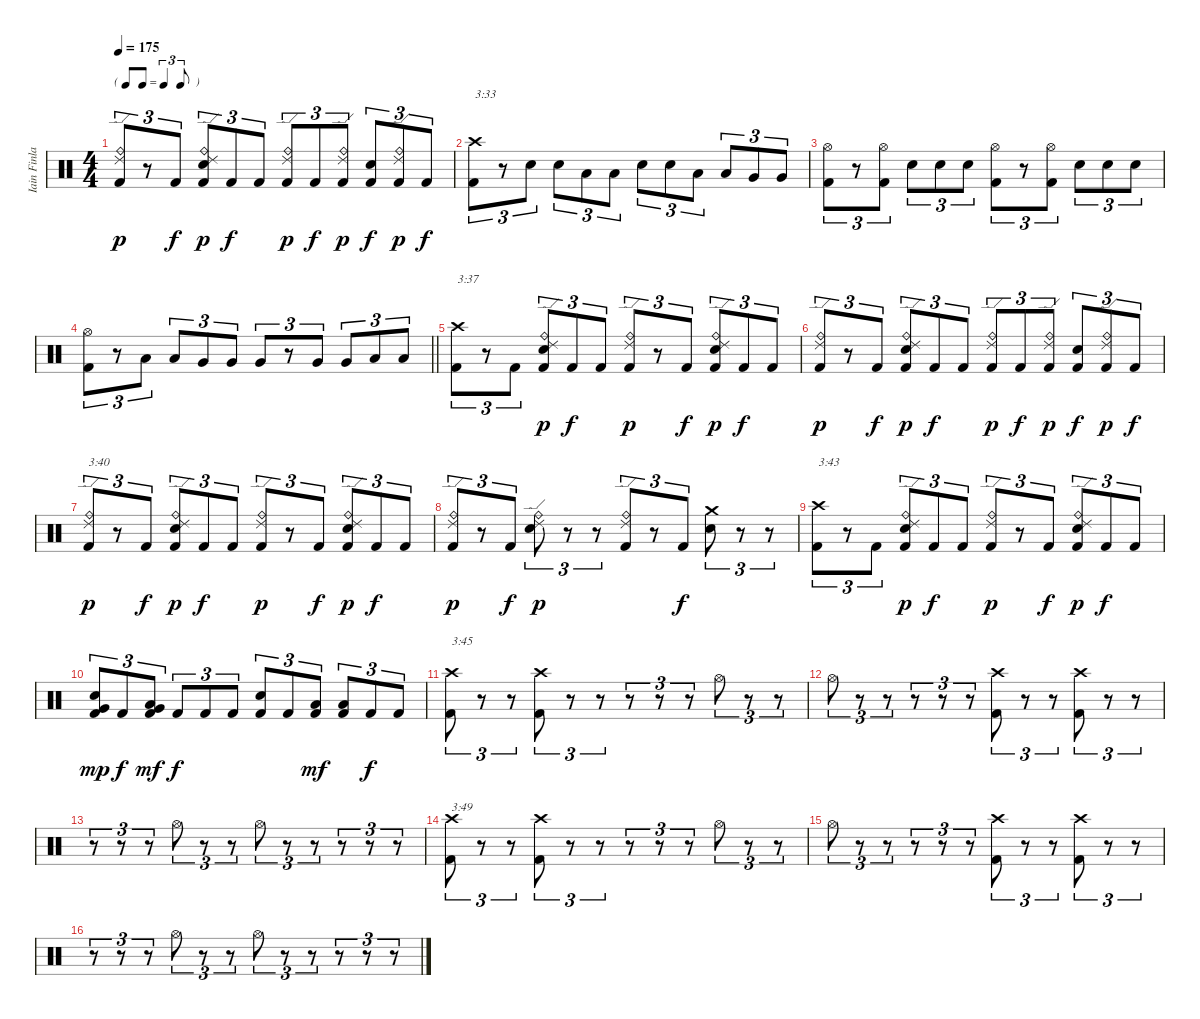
\track ("Iain Finlay" "Iain Finla") {instrument percussion}
\staff {score}
\articulation defaults
\ts (4 4)
\tf triplet8th
\tempo 175
\clef neutral
\ks c
("Ride (edge) 2" "Ride (bell)" "Kick (hit) 2").8{tu (3 2) dy p} r.8{tu (3 2)} "Kick (hit) 2".8{tu (3 2) dy f} ("Ride (edge) 2" "Ride (bell)" "Electric Snare (hit)" "Kick (hit) 2").8{tu (3 2) dy p} "Kick (hit) 2".8{tu (3 2) dy f} "Kick (hit) 2".8{tu (3 2)} ("Ride (edge) 2" "Ride (bell)" "Kick (hit) 2").8{tu (3 2) dy p} "Kick (hit) 2".8{tu (3 2) dy f} ("Ride (edge) 2" "Ride (bell)" "Kick (hit) 2").8{tu (3 2) dy p} ("Electric Snare (hit)" "Kick (hit) 2").8{tu (3 2) dy f} ("Ride (edge) 2" "Ride (bell)" "Kick (hit) 2").8{tu (3 2) dy p} "Kick (hit) 2".8{tu (3 2) dy f} |
("Crash high (hit)" "Kick (hit) 2").8{tu (3 2) txt "3:33"} r.8{tu (3 2)} "Electric Snare (hit)".8{tu (3 2)} "Electric Snare (hit)".8{tu (3 2)} "Low Tom (hit)".8{tu (3 2)} "Low Tom (hit)".8{tu (3 2)} "Electric Snare (hit)".8{tu (3 2)} "Electric Snare (hit)".8{tu (3 2)} "Low Tom (hit)".8{tu (3 2)} "Low Tom (hit)".8{tu (3 2)} "Very Low Tom (hit)".8{tu (3 2)} "Very Low Tom (hit)".8{tu (3 2)} |
("Hi-Hat (open)" "Kick (hit) 2").8{tu (3 2)} r.8{tu (3 2)} ("Hi-Hat (open)" "Kick (hit) 2").8{tu (3 2)} "Electric Snare (hit)".8{tu (3 2)} "Electric Snare (hit)".8{tu (3 2)} "Electric Snare (hit)".8{tu (3 2)} ("Hi-Hat (open)" "Kick (hit) 2").8{tu (3 2)} r.8{tu (3 2)} ("Hi-Hat (open)" "Kick (hit) 2").8{tu (3 2)} "Electric Snare (hit)".8{tu (3 2)} "Electric Snare (hit)".8{tu (3 2)} "Electric Snare (hit)".8{tu (3 2)} |
\barLineRight lightlight
("Hi-Hat (open)" "Kick (hit) 2").8{tu (3 2)} r.8{tu (3 2)} "Low Tom (hit)".8{tu (3 2)} "Low Tom (hit)".8{tu (3 2)} "Very Low Tom (hit)".8{tu (3 2)} "Very Low Tom (hit)".8{tu (3 2)} "Very Low Tom (hit)".8{tu (3 2)} r.8{tu (3 2)} "Very Low Tom (hit)".8{tu (3 2)} "Very Low Tom (hit)".8{tu (3 2)} "Low Floor Tom (hit)".8{tu (3 2)} "Low Floor Tom (hit)".8{tu (3 2)} |
\section ("" "")
("Crash high (hit)" "Kick (hit) 2").8{tu (3 2) txt "3:37"} r.8{tu (3 2)} "Kick (hit) 2".8{tu (3 2)} ("Ride (edge) 2" "Ride (bell)" "Electric Snare (hit)" "Kick (hit) 2").8{tu (3 2) dy p} "Kick (hit) 2".8{tu (3 2) dy f} "Kick (hit) 2".8{tu (3 2)} ("Ride (edge) 2" "Ride (bell)" "Kick (hit) 2").8{tu (3 2) dy p} r.8{tu (3 2)} "Kick (hit) 2".8{tu (3 2) dy f} ("Ride (edge) 2" "Ride (bell)" "Electric Snare (hit)" "Kick (hit) 2").8{tu (3 2) dy p} "Kick (hit) 2".8{tu (3 2) dy f} "Kick (hit) 2".8{tu (3 2)} |
("Ride (edge) 2" "Ride (bell)" "Kick (hit) 2").8{tu (3 2) dy p} r.8{tu (3 2)} "Kick (hit) 2".8{tu (3 2) dy f} ("Ride (edge) 2" "Ride (bell)" "Electric Snare (hit)" "Kick (hit) 2").8{tu (3 2) dy p} "Kick (hit) 2".8{tu (3 2) dy f} "Kick (hit) 2".8{tu (3 2)} ("Ride (edge) 2" "Ride (bell)" "Kick (hit) 2").8{tu (3 2) dy p} "Kick (hit) 2".8{tu (3 2) dy f} ("Ride (edge) 2" "Ride (bell)" "Kick (hit) 2").8{tu (3 2) dy p} ("Electric Snare (hit)" "Kick (hit) 2").8{tu (3 2) dy f} ("Ride (edge) 2" "Ride (bell)" "Kick (hit) 2").8{tu (3 2) dy p} "Kick (hit) 2".8{tu (3 2) dy f} |
("Ride (edge) 2" "Ride (bell)" "Kick (hit) 2").8{tu (3 2) txt "3:40" dy p} r.8{tu (3 2)} "Kick (hit) 2".8{tu (3 2) dy f} ("Ride (edge) 2" "Ride (bell)" "Electric Snare (hit)" "Kick (hit) 2").8{tu (3 2) dy p} "Kick (hit) 2".8{tu (3 2) dy f} "Kick (hit) 2".8{tu (3 2)} ("Ride (edge) 2" "Ride (bell)" "Kick (hit) 2").8{tu (3 2) dy p} r.8{tu (3 2)} "Kick (hit) 2".8{tu (3 2) dy f} ("Ride (edge) 2" "Ride (bell)" "Electric Snare (hit)" "Kick (hit) 2").8{tu (3 2) dy p} "Kick (hit) 2".8{tu (3 2) dy f} "Kick (hit) 2".8{tu (3 2)} |
("Ride (edge) 2" "Ride (bell)" "Kick (hit) 2").8{tu (3 2) dy p} r.8{tu (3 2)} "Kick (hit) 2".8{tu (3 2) dy f} ("Ride (edge) 2" "Ride (bell)" "Electric Snare (hit)").8{tu (3 2) dy p} r.8{tu (3 2)} r.8{tu (3 2)} ("Ride (edge) 2" "Ride (bell)" "Kick (hit) 2").8{tu (3 2)} r.8{tu (3 2)} "Kick (hit) 2".8{tu (3 2) dy f} ("Crash medium (hit)" "Electric Snare (hit)").8{tu (3 2)} r.8{tu (3 2)} r.8{tu (3 2)} |
("Crash high (hit)" "Kick (hit) 2").8{tu (3 2) txt "3:43"} r.8{tu (3 2)} "Kick (hit) 2".8{tu (3 2)} ("Ride (edge) 2" "Ride (bell)" "Electric Snare (hit)" "Kick (hit) 2").8{tu (3 2) dy p} "Kick (hit) 2".8{tu (3 2) dy f} "Kick (hit) 2".8{tu (3 2)} ("Ride (edge) 2" "Ride (bell)" "Kick (hit) 2").8{tu (3 2) dy p} r.8{tu (3 2)} "Kick (hit) 2".8{tu (3 2) dy f} ("Ride (edge) 2" "Ride (bell)" "Electric Snare (hit)" "Kick (hit) 2").8{tu (3 2) dy p} "Kick (hit) 2".8{tu (3 2) dy f} "Kick (hit) 2".8{tu (3 2)} |
("Very Low Tom (hit)" "Electric Snare (hit)" "Kick (hit) 2").8{tu (3 2) dy mp} "Kick (hit) 2".8{tu (3 2) dy f} ("Very Low Tom (hit)" "Low Floor Tom (hit)" "Kick (hit) 2").8{tu (3 2) dy mf} "Kick (hit) 2".8{tu (3 2) dy f} "Kick (hit) 2".8{tu (3 2)} "Kick (hit) 2".8{tu (3 2)} ("Electric Snare (hit)" "Kick (hit) 2").8{tu (3 2)} "Kick (hit) 2".8{tu (3 2)} ("Low Floor Tom (hit)" "Kick (hit) 2").8{tu (3 2) dy mf} ("Low Floor Tom (hit)" "Kick (hit) 2").8{tu (3 2)} "Kick (hit) 2".8{tu (3 2) dy f} "Kick (hit) 2".8{tu (3 2)} |
("Crash high (hit)" "Kick (hit) 2").8{tu (3 2) txt "3:45"} r.8{tu (3 2)} r.8{tu (3 2)} ("Crash high (hit)" "Kick (hit) 2").8{tu (3 2)} r.8{tu (3 2)} r.8{tu (3 2)} r.8{tu (3 2)} r.8{tu (3 2)} r.8{tu (3 2)} "Hi-Hat (open)".8{tu (3 2)} r.8{tu (3 2)} r.8{tu (3 2)} |
"Hi-Hat (open)".8{tu (3 2)} r.8{tu (3 2)} r.8{tu (3 2)} r.8{tu (3 2)} r.8{tu (3 2)} r.8{tu (3 2)} ("Crash high (hit)" "Kick (hit) 2").8{tu (3 2)} r.8{tu (3 2)} r.8{tu (3 2)} ("Crash high (hit)" "Kick (hit) 2").8{tu (3 2)} r.8{tu (3 2)} r.8{tu (3 2)} |
r.8{tu (3 2)} r.8{tu (3 2)} r.8{tu (3 2)} "Hi-Hat (open)".8{tu (3 2)} r.8{tu (3 2)} r.8{tu (3 2)} "Hi-Hat (open)".8{tu (3 2)} r.8{tu (3 2)} r.8{tu (3 2)} r.8{tu (3 2)} r.8{tu (3 2)} r.8{tu (3 2)} |
("Crash high (hit)" "Kick (hit) 2").8{tu (3 2) txt "3:49"} r.8{tu (3 2)} r.8{tu (3 2)} ("Crash high (hit)" "Kick (hit) 2").8{tu (3 2)} r.8{tu (3 2)} r.8{tu (3 2)} r.8{tu (3 2)} r.8{tu (3 2)} r.8{tu (3 2)} "Hi-Hat (open)".8{tu (3 2)} r.8{tu (3 2)} r.8{tu (3 2)} |
"Hi-Hat (open)".8{tu (3 2)} r.8{tu (3 2)} r.8{tu (3 2)} r.8{tu (3 2)} r.8{tu (3 2)} r.8{tu (3 2)} ("Crash high (hit)" "Kick (hit) 2").8{tu (3 2)} r.8{tu (3 2)} r.8{tu (3 2)} ("Crash high (hit)" "Kick (hit) 2").8{tu (3 2)} r.8{tu (3 2)} r.8{tu (3 2)} |
r.8{tu (3 2)} r.8{tu (3 2)} r.8{tu (3 2)} "Hi-Hat (open)".8{tu (3 2)} r.8{tu (3 2)} r.8{tu (3 2)} "Hi-Hat (open)".8{tu (3 2)} r.8{tu (3 2)} r.8{tu (3 2)} r.8{tu (3 2)} r.8{tu (3 2)} r.8{tu (3 2)}
